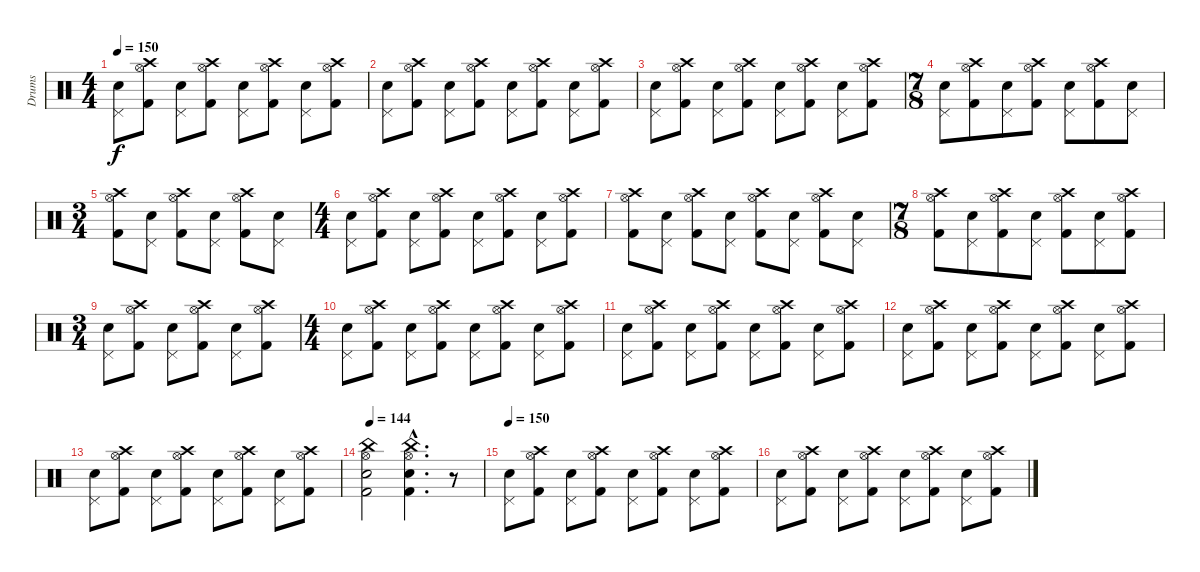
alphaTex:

\track ("Drums" "Drums") {instrument percussion}
\staff {score}
\articulation defaults
\ts (4 4)
\tempo 150
\clef neutral
\ks c
("Pedal Hi-Hat (hit)" "Snare (hit) 2").8{dy f} ("Crash high (hit)" "Hi-Hat (open)" "Kick (hit) 2").8 ("Pedal Hi-Hat (hit)" "Snare (hit) 2").8 ("Crash high (hit)" "Hi-Hat (open)" "Kick (hit) 2").8 ("Pedal Hi-Hat (hit)" "Snare (hit) 2").8 ("Crash high (hit)" "Hi-Hat (open)" "Kick (hit) 2").8 ("Pedal Hi-Hat (hit)" "Snare (hit) 2").8 ("Crash high (hit)" "Hi-Hat (open)" "Kick (hit) 2").8 |
("Pedal Hi-Hat (hit)" "Snare (hit) 2").8 ("Crash high (hit)" "Hi-Hat (open)" "Kick (hit) 2").8 ("Pedal Hi-Hat (hit)" "Snare (hit) 2").8 ("Crash high (hit)" "Hi-Hat (open)" "Kick (hit) 2").8 ("Pedal Hi-Hat (hit)" "Snare (hit) 2").8 ("Crash high (hit)" "Hi-Hat (open)" "Kick (hit) 2").8 ("Pedal Hi-Hat (hit)" "Snare (hit) 2").8 ("Crash high (hit)" "Hi-Hat (open)" "Kick (hit) 2").8 |
("Pedal Hi-Hat (hit)" "Snare (hit) 2").8 ("Crash high (hit)" "Hi-Hat (open)" "Kick (hit) 2").8 ("Pedal Hi-Hat (hit)" "Snare (hit) 2").8 ("Crash high (hit)" "Hi-Hat (open)" "Kick (hit) 2").8 ("Pedal Hi-Hat (hit)" "Snare (hit) 2").8 ("Crash high (hit)" "Hi-Hat (open)" "Kick (hit) 2").8 ("Pedal Hi-Hat (hit)" "Snare (hit) 2").8 ("Crash high (hit)" "Hi-Hat (open)" "Kick (hit) 2").8 |
\ts (7 8)
("Pedal Hi-Hat (hit)" "Snare (hit) 2").8 ("Crash high (hit)" "Hi-Hat (open)" "Kick (hit) 2").8 ("Pedal Hi-Hat (hit)" "Snare (hit) 2").8 ("Crash high (hit)" "Hi-Hat (open)" "Kick (hit) 2").8 ("Pedal Hi-Hat (hit)" "Snare (hit) 2").8 ("Crash high (hit)" "Hi-Hat (open)" "Kick (hit) 2").8 ("Pedal Hi-Hat (hit)" "Snare (hit) 2").8 |
\ts (3 4)
("Crash high (hit)" "Hi-Hat (open)" "Kick (hit) 2").8 ("Pedal Hi-Hat (hit)" "Snare (hit) 2").8 ("Crash high (hit)" "Hi-Hat (open)" "Kick (hit) 2").8 ("Pedal Hi-Hat (hit)" "Snare (hit) 2").8 ("Crash high (hit)" "Hi-Hat (open)" "Kick (hit) 2").8 ("Pedal Hi-Hat (hit)" "Snare (hit) 2").8 |
\ts (4 4)
("Pedal Hi-Hat (hit)" "Snare (hit) 2").8 ("Crash high (hit)" "Hi-Hat (open)" "Kick (hit) 2").8 ("Pedal Hi-Hat (hit)" "Snare (hit) 2").8 ("Crash high (hit)" "Hi-Hat (open)" "Kick (hit) 2").8 ("Pedal Hi-Hat (hit)" "Snare (hit) 2").8 ("Crash high (hit)" "Hi-Hat (open)" "Kick (hit) 2").8 ("Pedal Hi-Hat (hit)" "Snare (hit) 2").8 ("Crash high (hit)" "Hi-Hat (open)" "Kick (hit) 2").8 |
("Crash high (hit)" "Hi-Hat (open)" "Kick (hit) 2").8 ("Pedal Hi-Hat (hit)" "Snare (hit) 2").8 ("Crash high (hit)" "Hi-Hat (open)" "Kick (hit) 2").8 ("Pedal Hi-Hat (hit)" "Snare (hit) 2").8 ("Crash high (hit)" "Hi-Hat (open)" "Kick (hit) 2").8 ("Pedal Hi-Hat (hit)" "Snare (hit) 2").8 ("Crash high (hit)" "Hi-Hat (open)" "Kick (hit) 2").8 ("Pedal Hi-Hat (hit)" "Snare (hit) 2").8 |
\ts (7 8)
("Crash high (hit)" "Hi-Hat (open)" "Kick (hit) 2").8 ("Pedal Hi-Hat (hit)" "Snare (hit) 2").8 ("Crash high (hit)" "Hi-Hat (open)" "Kick (hit) 2").8 ("Pedal Hi-Hat (hit)" "Snare (hit) 2").8 ("Crash high (hit)" "Hi-Hat (open)" "Kick (hit) 2").8 ("Pedal Hi-Hat (hit)" "Snare (hit) 2").8 ("Crash high (hit)" "Hi-Hat (open)" "Kick (hit) 2").8 |
\ts (3 4)
("Pedal Hi-Hat (hit)" "Snare (hit) 2").8 ("Crash high (hit)" "Hi-Hat (open)" "Kick (hit) 2").8 ("Pedal Hi-Hat (hit)" "Snare (hit) 2").8 ("Crash high (hit)" "Hi-Hat (open)" "Kick (hit) 2").8 ("Pedal Hi-Hat (hit)" "Snare (hit) 2").8 ("Crash high (hit)" "Hi-Hat (open)" "Kick (hit) 2").8 |
\ts (4 4)
("Pedal Hi-Hat (hit)" "Snare (hit) 2").8 ("Crash high (hit)" "Hi-Hat (open)" "Kick (hit) 2").8 ("Pedal Hi-Hat (hit)" "Snare (hit) 2").8 ("Crash high (hit)" "Hi-Hat (open)" "Kick (hit) 2").8 ("Pedal Hi-Hat (hit)" "Snare (hit) 2").8 ("Crash high (hit)" "Hi-Hat (open)" "Kick (hit) 2").8 ("Pedal Hi-Hat (hit)" "Snare (hit) 2").8 ("Crash high (hit)" "Hi-Hat (open)" "Kick (hit) 2").8 |
("Pedal Hi-Hat (hit)" "Snare (hit) 2").8 ("Crash high (hit)" "Hi-Hat (open)" "Kick (hit) 2").8 ("Pedal Hi-Hat (hit)" "Snare (hit) 2").8 ("Crash high (hit)" "Hi-Hat (open)" "Kick (hit) 2").8 ("Pedal Hi-Hat (hit)" "Snare (hit) 2").8 ("Crash high (hit)" "Hi-Hat (open)" "Kick (hit) 2").8 ("Pedal Hi-Hat (hit)" "Snare (hit) 2").8 ("Crash high (hit)" "Hi-Hat (open)" "Kick (hit) 2").8 |
("Pedal Hi-Hat (hit)" "Snare (hit) 2").8 ("Crash high (hit)" "Hi-Hat (open)" "Kick (hit) 2").8 ("Pedal Hi-Hat (hit)" "Snare (hit) 2").8 ("Crash high (hit)" "Hi-Hat (open)" "Kick (hit) 2").8 ("Pedal Hi-Hat (hit)" "Snare (hit) 2").8 ("Crash high (hit)" "Hi-Hat (open)" "Kick (hit) 2").8 ("Pedal Hi-Hat (hit)" "Snare (hit) 2").8 ("Crash high (hit)" "Hi-Hat (open)" "Kick (hit) 2").8 |
("Pedal Hi-Hat (hit)" "Snare (hit) 2").8 ("Crash high (hit)" "Hi-Hat (open)" "Kick (hit) 2").8 ("Pedal Hi-Hat (hit)" "Snare (hit) 2").8 ("Crash high (hit)" "Hi-Hat (open)" "Kick (hit) 2").8 ("Pedal Hi-Hat (hit)" "Snare (hit) 2").8 ("Crash high (hit)" "Hi-Hat (open)" "Kick (hit) 2").8 ("Pedal Hi-Hat (hit)" "Snare (hit) 2").8 ("Crash high (hit)" "Hi-Hat (open)" "Kick (hit) 2").8 |
\tempo 144
("Snare (hit) 2" "Kick (hit) 2" "Hi-Hat (open)" "China (hit)").2 ("Snare (hit) 2"{hac} "Kick (hit) 2"{hac} "Hi-Hat (open)"{hac} "China (hit)"{hac}).4{d} r.8 |
\tempo 150
("Pedal Hi-Hat (hit)" "Snare (hit) 2").8 ("Crash high (hit)" "Hi-Hat (open)" "Kick (hit) 2").8 ("Pedal Hi-Hat (hit)" "Snare (hit) 2").8 ("Crash high (hit)" "Hi-Hat (open)" "Kick (hit) 2").8 ("Pedal Hi-Hat (hit)" "Snare (hit) 2").8 ("Crash high (hit)" "Hi-Hat (open)" "Kick (hit) 2").8 ("Pedal Hi-Hat (hit)" "Snare (hit) 2").8 ("Crash high (hit)" "Hi-Hat (open)" "Kick (hit) 2").8 |
("Pedal Hi-Hat (hit)" "Snare (hit) 2").8 ("Crash high (hit)" "Hi-Hat (open)" "Kick (hit) 2").8 ("Pedal Hi-Hat (hit)" "Snare (hit) 2").8 ("Crash high (hit)" "Hi-Hat (open)" "Kick (hit) 2").8 ("Pedal Hi-Hat (hit)" "Snare (hit) 2").8 ("Crash high (hit)" "Hi-Hat (open)" "Kick (hit) 2").8 ("Pedal Hi-Hat (hit)" "Snare (hit) 2").8 ("Crash high (hit)" "Hi-Hat (open)" "Kick (hit) 2").8
